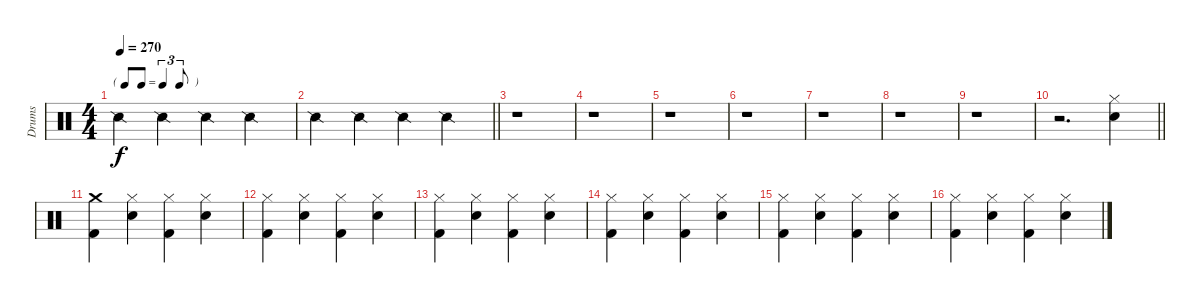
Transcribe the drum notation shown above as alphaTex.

\track ("Drums" "Drums") {instrument percussion}
\staff {score}
\articulation defaults
\ts (4 4)
\tf triplet8th
\tempo 270
\clef neutral
\ks c "Snare (side stick) 2".4{dy f} "Snare (side stick) 2".4 "Snare (side stick) 2".4 "Snare (side stick) 2".4
|
\barLineRight lightlight "Snare (side stick) 2".4 "Snare (side stick) 2".4 "Snare (side stick) 2".4 "Snare (side stick) 2".4
|
r.1 |
r.1 |
r.1 |
r.1 |
r.1 |
r.1 |
r.1 |
\barLineRight lightlight
r.2{d} ("Snare (hit) 2" "Hi-Hat (closed)").4 |
("Crash medium (hit)" "Kick (hit) 2").4 ("Snare (hit) 2" "Hi-Hat (closed)").4 ("Hi-Hat (closed)" "Kick (hit) 2").4 ("Snare (hit) 2" "Hi-Hat (closed)").4 |
("Hi-Hat (closed)" "Kick (hit) 2").4 ("Snare (hit) 2" "Hi-Hat (closed)").4 ("Hi-Hat (closed)" "Kick (hit) 2").4 ("Snare (hit) 2" "Hi-Hat (closed)").4 |
("Hi-Hat (closed)" "Kick (hit) 2").4 ("Snare (hit) 2" "Hi-Hat (closed)").4 ("Hi-Hat (closed)" "Kick (hit) 2").4 ("Snare (hit) 2" "Hi-Hat (closed)").4 |
("Hi-Hat (closed)" "Kick (hit) 2").4 ("Snare (hit) 2" "Hi-Hat (closed)").4 ("Hi-Hat (closed)" "Kick (hit) 2").4 ("Snare (hit) 2" "Hi-Hat (closed)").4 |
("Hi-Hat (closed)" "Kick (hit) 2").4 ("Snare (hit) 2" "Hi-Hat (closed)").4 ("Hi-Hat (closed)" "Kick (hit) 2").4 ("Snare (hit) 2" "Hi-Hat (closed)").4 |
("Hi-Hat (closed)" "Kick (hit) 2").4 ("Snare (hit) 2" "Hi-Hat (closed)").4 ("Hi-Hat (closed)" "Kick (hit) 2").4 ("Snare (hit) 2" "Hi-Hat (closed)").4
